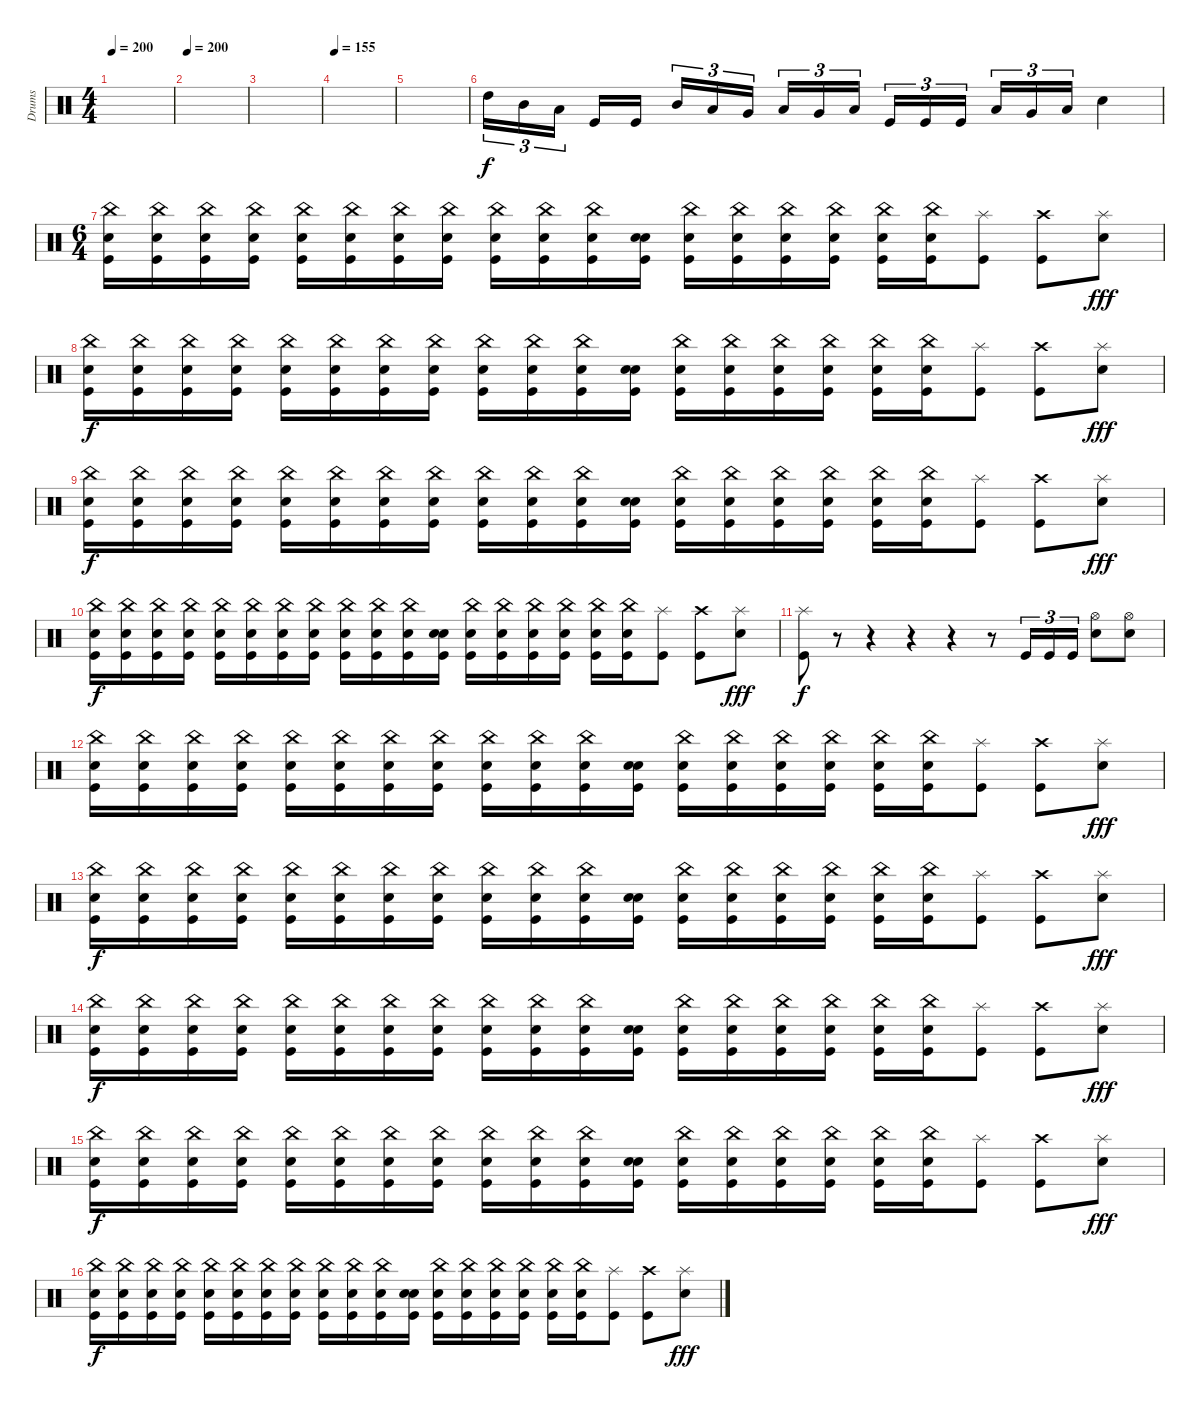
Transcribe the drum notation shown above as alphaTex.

\track ("Drums" "Drums") {instrument percussion}
\staff {score}
\articulation defaults
\ts (4 4)
\tempo 200
\clef neutral
\ks c
|
\tempo 200
|
|
\tempo 155
|
|
"High Tom (hit)".16{tu (3 2)} "Mid Tom (hit)".16{tu (3 2)} "Low Tom (hit)".16{tu (3 2)} "Kick (hit)".16 "Kick (hit)".16 "Mid Tom (hit)".16{tu (3 2)} "Low Tom (hit)".16{tu (3 2)} "Very Low Tom (hit)".16{tu (3 2)} "Low Tom (hit)".16{tu (3 2)} "Very Low Tom (hit)".16{tu (3 2)} "Low Floor Tom (hit)".16{tu (3 2)} "Kick (hit)".16{tu (3 2)} "Kick (hit)".16{tu (3 2)} "Kick (hit)".16{tu (3 2)} "Low Tom (hit)".16{tu (3 2)} "Very Low Tom (hit)".16{tu (3 2)} "Low Floor Tom (hit)".16{tu (3 2)} "Electric Snare (hit)".4 |
\ts (6 4)
("China (hit)" "Electric Snare (hit)" "Kick (hit)").16 ("China (hit)" "Electric Snare (hit)" "Kick (hit)").16 ("China (hit)" "Electric Snare (hit)" "Kick (hit)").16 ("China (hit)" "Electric Snare (hit)" "Kick (hit)").16 ("China (hit)" "Electric Snare (hit)" "Kick (hit)").16 ("China (hit)" "Electric Snare (hit)" "Kick (hit)").16 ("China (hit)" "Electric Snare (hit)" "Kick (hit)").16 ("China (hit)" "Electric Snare (hit)" "Kick (hit)").16 ("China (hit)" "Electric Snare (hit)" "Kick (hit)").16 ("China (hit)" "Electric Snare (hit)" "Kick (hit)").16 ("China (hit)" "Electric Snare (hit)" "Kick (hit)").16 ("Snare (hit)" "Electric Snare (hit)" "Kick (hit)").16 ("China (hit)" "Electric Snare (hit)" "Kick (hit)").16 ("China (hit)" "Electric Snare (hit)" "Kick (hit)").16 ("China (hit)" "Electric Snare (hit)" "Kick (hit)").16 ("China (hit)" "Electric Snare (hit)" "Kick (hit)").16 ("China (hit)" "Electric Snare (hit)" "Kick (hit)").16 ("China (hit)" "Electric Snare (hit)" "Kick (hit)").16 ("Splash (hit)" "Kick (hit)").8 ("Crash high (hit)" "Kick (hit)").8 ("Splash (hit)" "Electric Snare (hit)").8{dy fff} |
("China (hit)" "Electric Snare (hit)" "Kick (hit)").16{dy f} ("China (hit)" "Electric Snare (hit)" "Kick (hit)").16 ("China (hit)" "Electric Snare (hit)" "Kick (hit)").16 ("China (hit)" "Electric Snare (hit)" "Kick (hit)").16 ("China (hit)" "Electric Snare (hit)" "Kick (hit)").16 ("China (hit)" "Electric Snare (hit)" "Kick (hit)").16 ("China (hit)" "Electric Snare (hit)" "Kick (hit)").16 ("China (hit)" "Electric Snare (hit)" "Kick (hit)").16 ("China (hit)" "Electric Snare (hit)" "Kick (hit)").16 ("China (hit)" "Electric Snare (hit)" "Kick (hit)").16 ("China (hit)" "Electric Snare (hit)" "Kick (hit)").16 ("Snare (hit)" "Electric Snare (hit)" "Kick (hit)").16 ("China (hit)" "Electric Snare (hit)" "Kick (hit)").16 ("China (hit)" "Electric Snare (hit)" "Kick (hit)").16 ("China (hit)" "Electric Snare (hit)" "Kick (hit)").16 ("China (hit)" "Electric Snare (hit)" "Kick (hit)").16 ("China (hit)" "Electric Snare (hit)" "Kick (hit)").16 ("China (hit)" "Electric Snare (hit)" "Kick (hit)").16 ("Splash (hit)" "Kick (hit)").8 ("Crash high (hit)" "Kick (hit)").8 ("Splash (hit)" "Electric Snare (hit)").8{dy fff} |
("China (hit)" "Electric Snare (hit)" "Kick (hit)").16{dy f} ("China (hit)" "Electric Snare (hit)" "Kick (hit)").16 ("China (hit)" "Electric Snare (hit)" "Kick (hit)").16 ("China (hit)" "Electric Snare (hit)" "Kick (hit)").16 ("China (hit)" "Electric Snare (hit)" "Kick (hit)").16 ("China (hit)" "Electric Snare (hit)" "Kick (hit)").16 ("China (hit)" "Electric Snare (hit)" "Kick (hit)").16 ("China (hit)" "Electric Snare (hit)" "Kick (hit)").16 ("China (hit)" "Electric Snare (hit)" "Kick (hit)").16 ("China (hit)" "Electric Snare (hit)" "Kick (hit)").16 ("China (hit)" "Electric Snare (hit)" "Kick (hit)").16 ("Snare (hit)" "Electric Snare (hit)" "Kick (hit)").16 ("China (hit)" "Electric Snare (hit)" "Kick (hit)").16 ("China (hit)" "Electric Snare (hit)" "Kick (hit)").16 ("China (hit)" "Electric Snare (hit)" "Kick (hit)").16 ("China (hit)" "Electric Snare (hit)" "Kick (hit)").16 ("China (hit)" "Electric Snare (hit)" "Kick (hit)").16 ("China (hit)" "Electric Snare (hit)" "Kick (hit)").16 ("Splash (hit)" "Kick (hit)").8 ("Crash high (hit)" "Kick (hit)").8 ("Splash (hit)" "Electric Snare (hit)").8{dy fff} |
("China (hit)" "Electric Snare (hit)" "Kick (hit)").16{dy f} ("China (hit)" "Electric Snare (hit)" "Kick (hit)").16 ("China (hit)" "Electric Snare (hit)" "Kick (hit)").16 ("China (hit)" "Electric Snare (hit)" "Kick (hit)").16 ("China (hit)" "Electric Snare (hit)" "Kick (hit)").16 ("China (hit)" "Electric Snare (hit)" "Kick (hit)").16 ("China (hit)" "Electric Snare (hit)" "Kick (hit)").16 ("China (hit)" "Electric Snare (hit)" "Kick (hit)").16 ("China (hit)" "Electric Snare (hit)" "Kick (hit)").16 ("China (hit)" "Electric Snare (hit)" "Kick (hit)").16 ("China (hit)" "Electric Snare (hit)" "Kick (hit)").16 ("Snare (hit)" "Electric Snare (hit)" "Kick (hit)").16 ("China (hit)" "Electric Snare (hit)" "Kick (hit)").16 ("China (hit)" "Electric Snare (hit)" "Kick (hit)").16 ("China (hit)" "Electric Snare (hit)" "Kick (hit)").16 ("China (hit)" "Electric Snare (hit)" "Kick (hit)").16 ("China (hit)" "Electric Snare (hit)" "Kick (hit)").16 ("China (hit)" "Electric Snare (hit)" "Kick (hit)").16 ("Splash (hit)" "Kick (hit)").8 ("Crash high (hit)" "Kick (hit)").8 ("Splash (hit)" "Electric Snare (hit)").8{dy fff} |
("Splash (hit)" "Kick (hit)").8{dy f} r.8 r.4 r.4 r.4 r.8 "Kick (hit)".16{tu (3 2)} "Kick (hit)".16{tu (3 2)} "Kick (hit)".16{tu (3 2)} ("Hi-Hat (open)" "Electric Snare (hit)").8 ("Hi-Hat (open)" "Electric Snare (hit)").8 |
("China (hit)" "Electric Snare (hit)" "Kick (hit)").16 ("China (hit)" "Electric Snare (hit)" "Kick (hit)").16 ("China (hit)" "Electric Snare (hit)" "Kick (hit)").16 ("China (hit)" "Electric Snare (hit)" "Kick (hit)").16 ("China (hit)" "Electric Snare (hit)" "Kick (hit)").16 ("China (hit)" "Electric Snare (hit)" "Kick (hit)").16 ("China (hit)" "Electric Snare (hit)" "Kick (hit)").16 ("China (hit)" "Electric Snare (hit)" "Kick (hit)").16 ("China (hit)" "Electric Snare (hit)" "Kick (hit)").16 ("China (hit)" "Electric Snare (hit)" "Kick (hit)").16 ("China (hit)" "Electric Snare (hit)" "Kick (hit)").16 ("Snare (hit)" "Electric Snare (hit)" "Kick (hit)").16 ("China (hit)" "Electric Snare (hit)" "Kick (hit)").16 ("China (hit)" "Electric Snare (hit)" "Kick (hit)").16 ("China (hit)" "Electric Snare (hit)" "Kick (hit)").16 ("China (hit)" "Electric Snare (hit)" "Kick (hit)").16 ("China (hit)" "Electric Snare (hit)" "Kick (hit)").16 ("China (hit)" "Electric Snare (hit)" "Kick (hit)").16 ("Splash (hit)" "Kick (hit)").8 ("Crash high (hit)" "Kick (hit)").8 ("Splash (hit)" "Electric Snare (hit)").8{dy fff} |
("China (hit)" "Electric Snare (hit)" "Kick (hit)").16{dy f} ("China (hit)" "Electric Snare (hit)" "Kick (hit)").16 ("China (hit)" "Electric Snare (hit)" "Kick (hit)").16 ("China (hit)" "Electric Snare (hit)" "Kick (hit)").16 ("China (hit)" "Electric Snare (hit)" "Kick (hit)").16 ("China (hit)" "Electric Snare (hit)" "Kick (hit)").16 ("China (hit)" "Electric Snare (hit)" "Kick (hit)").16 ("China (hit)" "Electric Snare (hit)" "Kick (hit)").16 ("China (hit)" "Electric Snare (hit)" "Kick (hit)").16 ("China (hit)" "Electric Snare (hit)" "Kick (hit)").16 ("China (hit)" "Electric Snare (hit)" "Kick (hit)").16 ("Snare (hit)" "Electric Snare (hit)" "Kick (hit)").16 ("China (hit)" "Electric Snare (hit)" "Kick (hit)").16 ("China (hit)" "Electric Snare (hit)" "Kick (hit)").16 ("China (hit)" "Electric Snare (hit)" "Kick (hit)").16 ("China (hit)" "Electric Snare (hit)" "Kick (hit)").16 ("China (hit)" "Electric Snare (hit)" "Kick (hit)").16 ("China (hit)" "Electric Snare (hit)" "Kick (hit)").16 ("Splash (hit)" "Kick (hit)").8 ("Crash high (hit)" "Kick (hit)").8 ("Splash (hit)" "Electric Snare (hit)").8{dy fff} |
("China (hit)" "Electric Snare (hit)" "Kick (hit)").16{dy f} ("China (hit)" "Electric Snare (hit)" "Kick (hit)").16 ("China (hit)" "Electric Snare (hit)" "Kick (hit)").16 ("China (hit)" "Electric Snare (hit)" "Kick (hit)").16 ("China (hit)" "Electric Snare (hit)" "Kick (hit)").16 ("China (hit)" "Electric Snare (hit)" "Kick (hit)").16 ("China (hit)" "Electric Snare (hit)" "Kick (hit)").16 ("China (hit)" "Electric Snare (hit)" "Kick (hit)").16 ("China (hit)" "Electric Snare (hit)" "Kick (hit)").16 ("China (hit)" "Electric Snare (hit)" "Kick (hit)").16 ("China (hit)" "Electric Snare (hit)" "Kick (hit)").16 ("Snare (hit)" "Electric Snare (hit)" "Kick (hit)").16 ("China (hit)" "Electric Snare (hit)" "Kick (hit)").16 ("China (hit)" "Electric Snare (hit)" "Kick (hit)").16 ("China (hit)" "Electric Snare (hit)" "Kick (hit)").16 ("China (hit)" "Electric Snare (hit)" "Kick (hit)").16 ("China (hit)" "Electric Snare (hit)" "Kick (hit)").16 ("China (hit)" "Electric Snare (hit)" "Kick (hit)").16 ("Splash (hit)" "Kick (hit)").8 ("Crash high (hit)" "Kick (hit)").8 ("Splash (hit)" "Electric Snare (hit)").8{dy fff} |
("China (hit)" "Electric Snare (hit)" "Kick (hit)").16{dy f} ("China (hit)" "Electric Snare (hit)" "Kick (hit)").16 ("China (hit)" "Electric Snare (hit)" "Kick (hit)").16 ("China (hit)" "Electric Snare (hit)" "Kick (hit)").16 ("China (hit)" "Electric Snare (hit)" "Kick (hit)").16 ("China (hit)" "Electric Snare (hit)" "Kick (hit)").16 ("China (hit)" "Electric Snare (hit)" "Kick (hit)").16 ("China (hit)" "Electric Snare (hit)" "Kick (hit)").16 ("China (hit)" "Electric Snare (hit)" "Kick (hit)").16 ("China (hit)" "Electric Snare (hit)" "Kick (hit)").16 ("China (hit)" "Electric Snare (hit)" "Kick (hit)").16 ("Snare (hit)" "Electric Snare (hit)" "Kick (hit)").16 ("China (hit)" "Electric Snare (hit)" "Kick (hit)").16 ("China (hit)" "Electric Snare (hit)" "Kick (hit)").16 ("China (hit)" "Electric Snare (hit)" "Kick (hit)").16 ("China (hit)" "Electric Snare (hit)" "Kick (hit)").16 ("China (hit)" "Electric Snare (hit)" "Kick (hit)").16 ("China (hit)" "Electric Snare (hit)" "Kick (hit)").16 ("Splash (hit)" "Kick (hit)").8 ("Crash high (hit)" "Kick (hit)").8 ("Splash (hit)" "Electric Snare (hit)").8{dy fff} |
("China (hit)" "Electric Snare (hit)" "Kick (hit)").16{dy f} ("China (hit)" "Electric Snare (hit)" "Kick (hit)").16 ("China (hit)" "Electric Snare (hit)" "Kick (hit)").16 ("China (hit)" "Electric Snare (hit)" "Kick (hit)").16 ("China (hit)" "Electric Snare (hit)" "Kick (hit)").16 ("China (hit)" "Electric Snare (hit)" "Kick (hit)").16 ("China (hit)" "Electric Snare (hit)" "Kick (hit)").16 ("China (hit)" "Electric Snare (hit)" "Kick (hit)").16 ("China (hit)" "Electric Snare (hit)" "Kick (hit)").16 ("China (hit)" "Electric Snare (hit)" "Kick (hit)").16 ("China (hit)" "Electric Snare (hit)" "Kick (hit)").16 ("Snare (hit)" "Electric Snare (hit)" "Kick (hit)").16 ("China (hit)" "Electric Snare (hit)" "Kick (hit)").16 ("China (hit)" "Electric Snare (hit)" "Kick (hit)").16 ("China (hit)" "Electric Snare (hit)" "Kick (hit)").16 ("China (hit)" "Electric Snare (hit)" "Kick (hit)").16 ("China (hit)" "Electric Snare (hit)" "Kick (hit)").16 ("China (hit)" "Electric Snare (hit)" "Kick (hit)").16 ("Splash (hit)" "Kick (hit)").8 ("Crash high (hit)" "Kick (hit)").8 ("Splash (hit)" "Electric Snare (hit)").8{dy fff}
